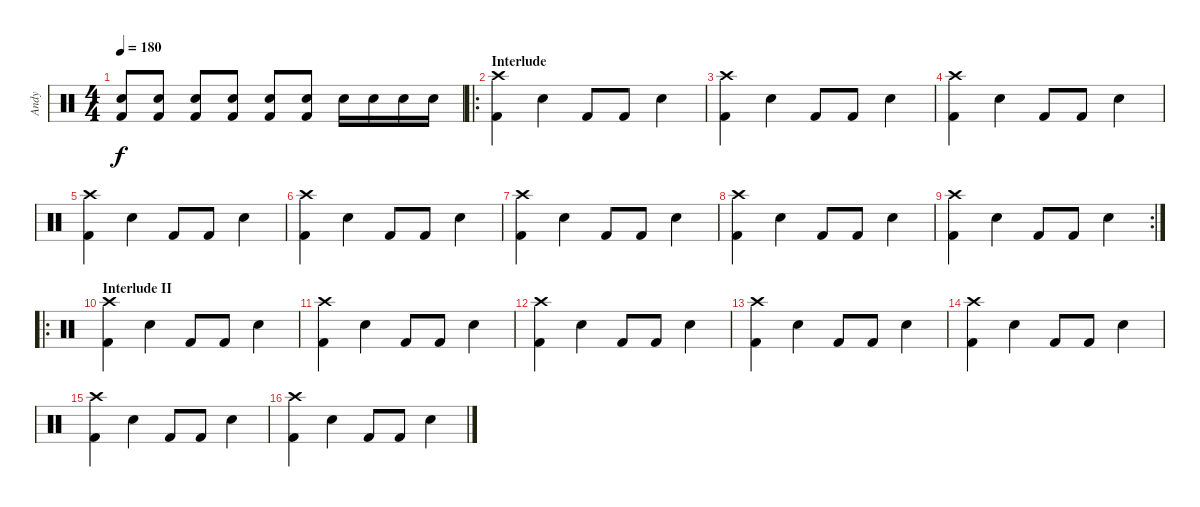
\track ("Andy" "Andy") {instrument percussion}
\staff {score}
\articulation defaults
\ts (4 4)
\tempo 180
\clef neutral
\ks c
("Snare (hit) 2" "Kick (hit) 2").8{dy f} ("Snare (hit) 2" "Kick (hit) 2").8 ("Snare (hit) 2" "Kick (hit) 2").8 ("Snare (hit) 2" "Kick (hit) 2").8 ("Snare (hit) 2" "Kick (hit) 2").8 ("Snare (hit) 2" "Kick (hit) 2").8 "Snare (hit) 2".16 "Snare (hit) 2".16 "Snare (hit) 2".16 "Snare (hit) 2".16 |
\ro
\section ("" "Interlude")
("Crash high (hit)" "Kick (hit) 2").4 "Snare (hit) 2".4 "Kick (hit) 2".8 "Kick (hit) 2".8 "Snare (hit) 2".4 |
("Crash high (hit)" "Kick (hit) 2").4 "Snare (hit) 2".4 "Kick (hit) 2".8 "Kick (hit) 2".8 "Snare (hit) 2".4 |
("Crash high (hit)" "Kick (hit) 2").4 "Snare (hit) 2".4 "Kick (hit) 2".8 "Kick (hit) 2".8 "Snare (hit) 2".4 |
("Crash high (hit)" "Kick (hit) 2").4 "Snare (hit) 2".4 "Kick (hit) 2".8 "Kick (hit) 2".8 "Snare (hit) 2".4 |
("Crash high (hit)" "Kick (hit) 2").4 "Snare (hit) 2".4 "Kick (hit) 2".8 "Kick (hit) 2".8 "Snare (hit) 2".4 |
("Crash high (hit)" "Kick (hit) 2").4 "Snare (hit) 2".4 "Kick (hit) 2".8 "Kick (hit) 2".8 "Snare (hit) 2".4 |
("Crash high (hit)" "Kick (hit) 2").4 "Snare (hit) 2".4 "Kick (hit) 2".8 "Kick (hit) 2".8 "Snare (hit) 2".4 |
\rc 2
("Crash high (hit)" "Kick (hit) 2").4 "Snare (hit) 2".4 "Kick (hit) 2".8 "Kick (hit) 2".8 "Snare (hit) 2".4 |
\ro
\section ("" "Interlude II")
("Crash high (hit)" "Kick (hit) 2").4 "Snare (hit) 2".4 "Kick (hit) 2".8 "Kick (hit) 2".8 "Snare (hit) 2".4 |
("Crash high (hit)" "Kick (hit) 2").4 "Snare (hit) 2".4 "Kick (hit) 2".8 "Kick (hit) 2".8 "Snare (hit) 2".4 |
("Crash high (hit)" "Kick (hit) 2").4 "Snare (hit) 2".4 "Kick (hit) 2".8 "Kick (hit) 2".8 "Snare (hit) 2".4 |
("Crash high (hit)" "Kick (hit) 2").4 "Snare (hit) 2".4 "Kick (hit) 2".8 "Kick (hit) 2".8 "Snare (hit) 2".4 |
("Crash high (hit)" "Kick (hit) 2").4 "Snare (hit) 2".4 "Kick (hit) 2".8 "Kick (hit) 2".8 "Snare (hit) 2".4 |
("Crash high (hit)" "Kick (hit) 2").4 "Snare (hit) 2".4 "Kick (hit) 2".8 "Kick (hit) 2".8 "Snare (hit) 2".4 |
("Crash high (hit)" "Kick (hit) 2").4 "Snare (hit) 2".4 "Kick (hit) 2".8 "Kick (hit) 2".8 "Snare (hit) 2".4
